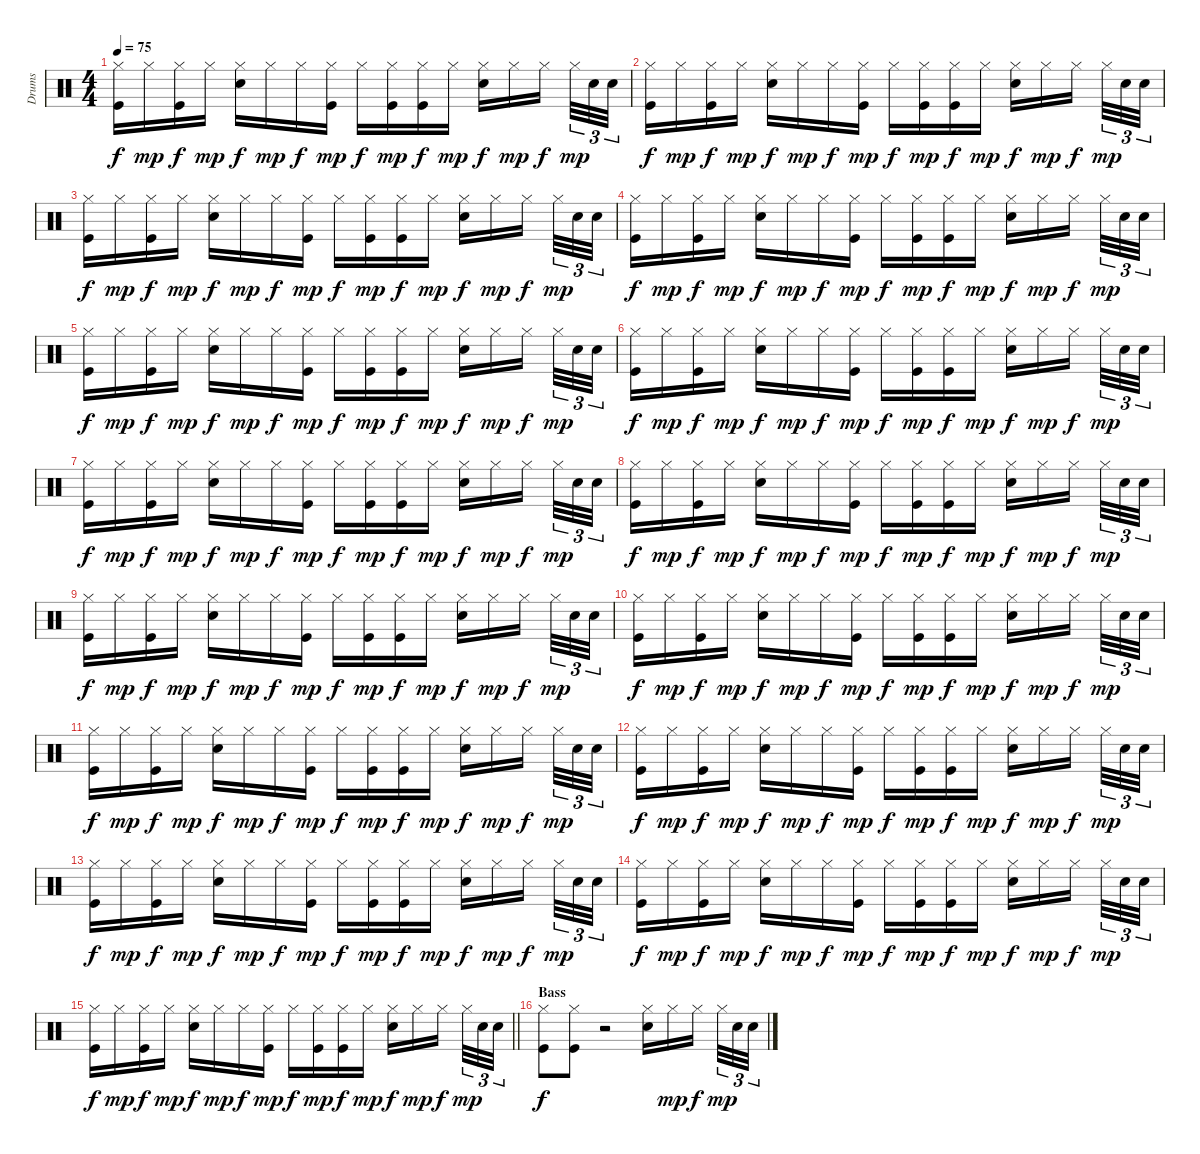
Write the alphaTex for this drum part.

\track ("Drums" "Drums") {instrument percussion}
\staff {score}
\articulation defaults
\ts (4 4)
\tempo 75
\clef neutral
\ks c
("Hi-Hat (closed)" "Kick (hit)").16{dy f} "Hi-Hat (closed)".16{dy mp} ("Hi-Hat (closed)" "Kick (hit)").16{dy f} "Hi-Hat (closed)".16{dy mp} ("Hi-Hat (closed)" "Snare (hit) 2").16{dy f} "Hi-Hat (closed)".16{dy mp} "Hi-Hat (closed)".16{dy f} ("Hi-Hat (closed)" "Kick (hit)").16{dy mp} "Hi-Hat (closed)".16{dy f} ("Hi-Hat (closed)" "Kick (hit)").16{dy mp} ("Hi-Hat (closed)" "Kick (hit)").16{dy f} "Hi-Hat (closed)".16{dy mp} ("Hi-Hat (closed)" "Snare (hit) 2").16{dy f} "Hi-Hat (closed)".16{dy mp} "Hi-Hat (closed)".16{dy f beam splitsecondary} "Hi-Hat (closed)".32{tu (3 2) dy mp} "Snare (hit) 2".32{tu (3 2)} "Snare (hit) 2".32{tu (3 2)} |
("Hi-Hat (closed)" "Kick (hit)").16{dy f} "Hi-Hat (closed)".16{dy mp} ("Hi-Hat (closed)" "Kick (hit)").16{dy f} "Hi-Hat (closed)".16{dy mp} ("Hi-Hat (closed)" "Snare (hit) 2").16{dy f} "Hi-Hat (closed)".16{dy mp} "Hi-Hat (closed)".16{dy f} ("Hi-Hat (closed)" "Kick (hit)").16{dy mp} "Hi-Hat (closed)".16{dy f} ("Hi-Hat (closed)" "Kick (hit)").16{dy mp} ("Hi-Hat (closed)" "Kick (hit)").16{dy f} "Hi-Hat (closed)".16{dy mp} ("Hi-Hat (closed)" "Snare (hit) 2").16{dy f} "Hi-Hat (closed)".16{dy mp} "Hi-Hat (closed)".16{dy f beam splitsecondary} "Hi-Hat (closed)".32{tu (3 2) dy mp} "Snare (hit) 2".32{tu (3 2)} "Snare (hit) 2".32{tu (3 2)} |
("Hi-Hat (closed)" "Kick (hit)").16{dy f} "Hi-Hat (closed)".16{dy mp} ("Hi-Hat (closed)" "Kick (hit)").16{dy f} "Hi-Hat (closed)".16{dy mp} ("Hi-Hat (closed)" "Snare (hit) 2").16{dy f} "Hi-Hat (closed)".16{dy mp} "Hi-Hat (closed)".16{dy f} ("Hi-Hat (closed)" "Kick (hit)").16{dy mp} "Hi-Hat (closed)".16{dy f} ("Hi-Hat (closed)" "Kick (hit)").16{dy mp} ("Hi-Hat (closed)" "Kick (hit)").16{dy f} "Hi-Hat (closed)".16{dy mp} ("Hi-Hat (closed)" "Snare (hit) 2").16{dy f} "Hi-Hat (closed)".16{dy mp} "Hi-Hat (closed)".16{dy f beam splitsecondary} "Hi-Hat (closed)".32{tu (3 2) dy mp} "Snare (hit) 2".32{tu (3 2)} "Snare (hit) 2".32{tu (3 2)} |
("Hi-Hat (closed)" "Kick (hit)").16{dy f} "Hi-Hat (closed)".16{dy mp} ("Hi-Hat (closed)" "Kick (hit)").16{dy f} "Hi-Hat (closed)".16{dy mp} ("Hi-Hat (closed)" "Snare (hit) 2").16{dy f} "Hi-Hat (closed)".16{dy mp} "Hi-Hat (closed)".16{dy f} ("Hi-Hat (closed)" "Kick (hit)").16{dy mp} "Hi-Hat (closed)".16{dy f} ("Hi-Hat (closed)" "Kick (hit)").16{dy mp} ("Hi-Hat (closed)" "Kick (hit)").16{dy f} "Hi-Hat (closed)".16{dy mp} ("Hi-Hat (closed)" "Snare (hit) 2").16{dy f} "Hi-Hat (closed)".16{dy mp} "Hi-Hat (closed)".16{dy f beam splitsecondary} "Hi-Hat (closed)".32{tu (3 2) dy mp} "Snare (hit) 2".32{tu (3 2)} "Snare (hit) 2".32{tu (3 2)} |
("Hi-Hat (closed)" "Kick (hit)").16{dy f} "Hi-Hat (closed)".16{dy mp} ("Hi-Hat (closed)" "Kick (hit)").16{dy f} "Hi-Hat (closed)".16{dy mp} ("Hi-Hat (closed)" "Snare (hit) 2").16{dy f} "Hi-Hat (closed)".16{dy mp} "Hi-Hat (closed)".16{dy f} ("Hi-Hat (closed)" "Kick (hit)").16{dy mp} "Hi-Hat (closed)".16{dy f} ("Hi-Hat (closed)" "Kick (hit)").16{dy mp} ("Hi-Hat (closed)" "Kick (hit)").16{dy f} "Hi-Hat (closed)".16{dy mp} ("Hi-Hat (closed)" "Snare (hit) 2").16{dy f} "Hi-Hat (closed)".16{dy mp} "Hi-Hat (closed)".16{dy f beam splitsecondary} "Hi-Hat (closed)".32{tu (3 2) dy mp} "Snare (hit) 2".32{tu (3 2)} "Snare (hit) 2".32{tu (3 2)} |
("Hi-Hat (closed)" "Kick (hit)").16{dy f} "Hi-Hat (closed)".16{dy mp} ("Hi-Hat (closed)" "Kick (hit)").16{dy f} "Hi-Hat (closed)".16{dy mp} ("Hi-Hat (closed)" "Snare (hit) 2").16{dy f} "Hi-Hat (closed)".16{dy mp} "Hi-Hat (closed)".16{dy f} ("Hi-Hat (closed)" "Kick (hit)").16{dy mp} "Hi-Hat (closed)".16{dy f} ("Hi-Hat (closed)" "Kick (hit)").16{dy mp} ("Hi-Hat (closed)" "Kick (hit)").16{dy f} "Hi-Hat (closed)".16{dy mp} ("Hi-Hat (closed)" "Snare (hit) 2").16{dy f} "Hi-Hat (closed)".16{dy mp} "Hi-Hat (closed)".16{dy f beam splitsecondary} "Hi-Hat (closed)".32{tu (3 2) dy mp} "Snare (hit) 2".32{tu (3 2)} "Snare (hit) 2".32{tu (3 2)} |
("Hi-Hat (closed)" "Kick (hit)").16{dy f} "Hi-Hat (closed)".16{dy mp} ("Hi-Hat (closed)" "Kick (hit)").16{dy f} "Hi-Hat (closed)".16{dy mp} ("Hi-Hat (closed)" "Snare (hit) 2").16{dy f} "Hi-Hat (closed)".16{dy mp} "Hi-Hat (closed)".16{dy f} ("Hi-Hat (closed)" "Kick (hit)").16{dy mp} "Hi-Hat (closed)".16{dy f} ("Hi-Hat (closed)" "Kick (hit)").16{dy mp} ("Hi-Hat (closed)" "Kick (hit)").16{dy f} "Hi-Hat (closed)".16{dy mp} ("Hi-Hat (closed)" "Snare (hit) 2").16{dy f} "Hi-Hat (closed)".16{dy mp} "Hi-Hat (closed)".16{dy f beam splitsecondary} "Hi-Hat (closed)".32{tu (3 2) dy mp} "Snare (hit) 2".32{tu (3 2)} "Snare (hit) 2".32{tu (3 2)} |
("Hi-Hat (closed)" "Kick (hit)").16{dy f} "Hi-Hat (closed)".16{dy mp} ("Hi-Hat (closed)" "Kick (hit)").16{dy f} "Hi-Hat (closed)".16{dy mp} ("Hi-Hat (closed)" "Snare (hit) 2").16{dy f} "Hi-Hat (closed)".16{dy mp} "Hi-Hat (closed)".16{dy f} ("Hi-Hat (closed)" "Kick (hit)").16{dy mp} "Hi-Hat (closed)".16{dy f} ("Hi-Hat (closed)" "Kick (hit)").16{dy mp} ("Hi-Hat (closed)" "Kick (hit)").16{dy f} "Hi-Hat (closed)".16{dy mp} ("Hi-Hat (closed)" "Snare (hit) 2").16{dy f} "Hi-Hat (closed)".16{dy mp} "Hi-Hat (closed)".16{dy f beam splitsecondary} "Hi-Hat (closed)".32{tu (3 2) dy mp} "Snare (hit) 2".32{tu (3 2)} "Snare (hit) 2".32{tu (3 2)} |
("Hi-Hat (closed)" "Kick (hit)").16{dy f} "Hi-Hat (closed)".16{dy mp} ("Hi-Hat (closed)" "Kick (hit)").16{dy f} "Hi-Hat (closed)".16{dy mp} ("Hi-Hat (closed)" "Snare (hit) 2").16{dy f} "Hi-Hat (closed)".16{dy mp} "Hi-Hat (closed)".16{dy f} ("Hi-Hat (closed)" "Kick (hit)").16{dy mp} "Hi-Hat (closed)".16{dy f} ("Hi-Hat (closed)" "Kick (hit)").16{dy mp} ("Hi-Hat (closed)" "Kick (hit)").16{dy f} "Hi-Hat (closed)".16{dy mp} ("Hi-Hat (closed)" "Snare (hit) 2").16{dy f} "Hi-Hat (closed)".16{dy mp} "Hi-Hat (closed)".16{dy f beam splitsecondary} "Hi-Hat (closed)".32{tu (3 2) dy mp} "Snare (hit) 2".32{tu (3 2)} "Snare (hit) 2".32{tu (3 2)} |
("Hi-Hat (closed)" "Kick (hit)").16{dy f} "Hi-Hat (closed)".16{dy mp} ("Hi-Hat (closed)" "Kick (hit)").16{dy f} "Hi-Hat (closed)".16{dy mp} ("Hi-Hat (closed)" "Snare (hit) 2").16{dy f} "Hi-Hat (closed)".16{dy mp} "Hi-Hat (closed)".16{dy f} ("Hi-Hat (closed)" "Kick (hit)").16{dy mp} "Hi-Hat (closed)".16{dy f} ("Hi-Hat (closed)" "Kick (hit)").16{dy mp} ("Hi-Hat (closed)" "Kick (hit)").16{dy f} "Hi-Hat (closed)".16{dy mp} ("Hi-Hat (closed)" "Snare (hit) 2").16{dy f} "Hi-Hat (closed)".16{dy mp} "Hi-Hat (closed)".16{dy f beam splitsecondary} "Hi-Hat (closed)".32{tu (3 2) dy mp} "Snare (hit) 2".32{tu (3 2)} "Snare (hit) 2".32{tu (3 2)} |
("Hi-Hat (closed)" "Kick (hit)").16{dy f} "Hi-Hat (closed)".16{dy mp} ("Hi-Hat (closed)" "Kick (hit)").16{dy f} "Hi-Hat (closed)".16{dy mp} ("Hi-Hat (closed)" "Snare (hit) 2").16{dy f} "Hi-Hat (closed)".16{dy mp} "Hi-Hat (closed)".16{dy f} ("Hi-Hat (closed)" "Kick (hit)").16{dy mp} "Hi-Hat (closed)".16{dy f} ("Hi-Hat (closed)" "Kick (hit)").16{dy mp} ("Hi-Hat (closed)" "Kick (hit)").16{dy f} "Hi-Hat (closed)".16{dy mp} ("Hi-Hat (closed)" "Snare (hit) 2").16{dy f} "Hi-Hat (closed)".16{dy mp} "Hi-Hat (closed)".16{dy f beam splitsecondary} "Hi-Hat (closed)".32{tu (3 2) dy mp} "Snare (hit) 2".32{tu (3 2)} "Snare (hit) 2".32{tu (3 2)} |
("Hi-Hat (closed)" "Kick (hit)").16{dy f} "Hi-Hat (closed)".16{dy mp} ("Hi-Hat (closed)" "Kick (hit)").16{dy f} "Hi-Hat (closed)".16{dy mp} ("Hi-Hat (closed)" "Snare (hit) 2").16{dy f} "Hi-Hat (closed)".16{dy mp} "Hi-Hat (closed)".16{dy f} ("Hi-Hat (closed)" "Kick (hit)").16{dy mp} "Hi-Hat (closed)".16{dy f} ("Hi-Hat (closed)" "Kick (hit)").16{dy mp} ("Hi-Hat (closed)" "Kick (hit)").16{dy f} "Hi-Hat (closed)".16{dy mp} ("Hi-Hat (closed)" "Snare (hit) 2").16{dy f} "Hi-Hat (closed)".16{dy mp} "Hi-Hat (closed)".16{dy f beam splitsecondary} "Hi-Hat (closed)".32{tu (3 2) dy mp} "Snare (hit) 2".32{tu (3 2)} "Snare (hit) 2".32{tu (3 2)} |
("Hi-Hat (closed)" "Kick (hit)").16{dy f} "Hi-Hat (closed)".16{dy mp} ("Hi-Hat (closed)" "Kick (hit)").16{dy f} "Hi-Hat (closed)".16{dy mp} ("Hi-Hat (closed)" "Snare (hit) 2").16{dy f} "Hi-Hat (closed)".16{dy mp} "Hi-Hat (closed)".16{dy f} ("Hi-Hat (closed)" "Kick (hit)").16{dy mp} "Hi-Hat (closed)".16{dy f} ("Hi-Hat (closed)" "Kick (hit)").16{dy mp} ("Hi-Hat (closed)" "Kick (hit)").16{dy f} "Hi-Hat (closed)".16{dy mp} ("Hi-Hat (closed)" "Snare (hit) 2").16{dy f} "Hi-Hat (closed)".16{dy mp} "Hi-Hat (closed)".16{dy f beam splitsecondary} "Hi-Hat (closed)".32{tu (3 2) dy mp} "Snare (hit) 2".32{tu (3 2)} "Snare (hit) 2".32{tu (3 2)} |
("Hi-Hat (closed)" "Kick (hit)").16{dy f} "Hi-Hat (closed)".16{dy mp} ("Hi-Hat (closed)" "Kick (hit)").16{dy f} "Hi-Hat (closed)".16{dy mp} ("Hi-Hat (closed)" "Snare (hit) 2").16{dy f} "Hi-Hat (closed)".16{dy mp} "Hi-Hat (closed)".16{dy f} ("Hi-Hat (closed)" "Kick (hit)").16{dy mp} "Hi-Hat (closed)".16{dy f} ("Hi-Hat (closed)" "Kick (hit)").16{dy mp} ("Hi-Hat (closed)" "Kick (hit)").16{dy f} "Hi-Hat (closed)".16{dy mp} ("Hi-Hat (closed)" "Snare (hit) 2").16{dy f} "Hi-Hat (closed)".16{dy mp} "Hi-Hat (closed)".16{dy f beam splitsecondary} "Hi-Hat (closed)".32{tu (3 2) dy mp} "Snare (hit) 2".32{tu (3 2)} "Snare (hit) 2".32{tu (3 2)} |
\barLineRight lightlight
("Hi-Hat (closed)" "Kick (hit)").16{dy f} "Hi-Hat (closed)".16{dy mp} ("Hi-Hat (closed)" "Kick (hit)").16{dy f} "Hi-Hat (closed)".16{dy mp} ("Hi-Hat (closed)" "Snare (hit) 2").16{dy f} "Hi-Hat (closed)".16{dy mp} "Hi-Hat (closed)".16{dy f} ("Hi-Hat (closed)" "Kick (hit)").16{dy mp} "Hi-Hat (closed)".16{dy f} ("Hi-Hat (closed)" "Kick (hit)").16{dy mp} ("Hi-Hat (closed)" "Kick (hit)").16{dy f} "Hi-Hat (closed)".16{dy mp} ("Hi-Hat (closed)" "Snare (hit) 2").16{dy f} "Hi-Hat (closed)".16{dy mp} "Hi-Hat (closed)".16{dy f beam splitsecondary} "Hi-Hat (closed)".32{tu (3 2) dy mp} "Snare (hit) 2".32{tu (3 2)} "Snare (hit) 2".32{tu (3 2)} |
\section ("" "Bass")
("Hi-Hat (closed)" "Kick (hit)").8{dy f} ("Hi-Hat (closed)" "Kick (hit)").8 r.2 ("Hi-Hat (closed)" "Snare (hit) 2").16 "Hi-Hat (closed)".16{dy mp} "Hi-Hat (closed)".16{dy f beam splitsecondary} "Hi-Hat (closed)".32{tu (3 2) dy mp} "Snare (hit) 2".32{tu (3 2)} "Snare (hit) 2".32{tu (3 2)}
